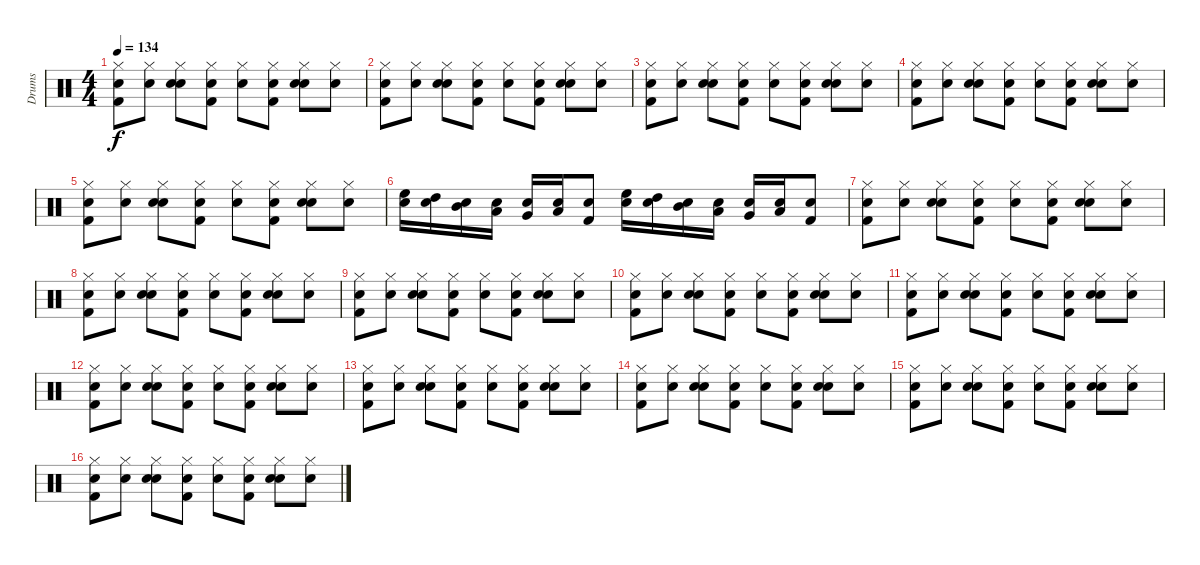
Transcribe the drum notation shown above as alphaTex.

\track ("Drums" "Drums") {instrument percussion}
\staff {score}
\articulation defaults
\ts (4 4)
\tempo 134
\clef neutral
\ks c
("Snare (hit)" "Kick (hit) 2" "Hi-Hat (closed)").8{dy f} ("Snare (hit)" "Hi-Hat (closed)").8 ("Snare (hit)" "Snare (hit) 2" "Hi-Hat (closed)").8 ("Snare (hit)" "Kick (hit) 2" "Hi-Hat (closed)").8 ("Snare (hit)" "Hi-Hat (closed)").8 ("Snare (hit)" "Kick (hit) 2" "Hi-Hat (closed)").8 ("Snare (hit)" "Snare (hit) 2" "Hi-Hat (closed)").8 ("Snare (hit)" "Hi-Hat (closed)").8 |
("Snare (hit)" "Kick (hit) 2" "Hi-Hat (closed)").8 ("Snare (hit)" "Hi-Hat (closed)").8 ("Snare (hit)" "Snare (hit) 2" "Hi-Hat (closed)").8 ("Snare (hit)" "Kick (hit) 2" "Hi-Hat (closed)").8 ("Snare (hit)" "Hi-Hat (closed)").8 ("Snare (hit)" "Kick (hit) 2" "Hi-Hat (closed)").8 ("Snare (hit)" "Snare (hit) 2" "Hi-Hat (closed)").8 ("Snare (hit)" "Hi-Hat (closed)").8 |
("Snare (hit)" "Kick (hit) 2" "Hi-Hat (closed)").8 ("Snare (hit)" "Hi-Hat (closed)").8 ("Snare (hit)" "Snare (hit) 2" "Hi-Hat (closed)").8 ("Snare (hit)" "Kick (hit) 2" "Hi-Hat (closed)").8 ("Snare (hit)" "Hi-Hat (closed)").8 ("Snare (hit)" "Kick (hit) 2" "Hi-Hat (closed)").8 ("Snare (hit)" "Snare (hit) 2" "Hi-Hat (closed)").8 ("Snare (hit)" "Hi-Hat (closed)").8 |
("Snare (hit)" "Kick (hit) 2" "Hi-Hat (closed)").8 ("Snare (hit)" "Hi-Hat (closed)").8 ("Snare (hit)" "Snare (hit) 2" "Hi-Hat (closed)").8 ("Snare (hit)" "Kick (hit) 2" "Hi-Hat (closed)").8 ("Snare (hit)" "Hi-Hat (closed)").8 ("Snare (hit)" "Kick (hit) 2" "Hi-Hat (closed)").8 ("Snare (hit)" "Snare (hit) 2" "Hi-Hat (closed)").8 ("Snare (hit)" "Hi-Hat (closed)").8 |
("Snare (hit)" "Kick (hit) 2" "Hi-Hat (closed)").8 ("Snare (hit)" "Hi-Hat (closed)").8 ("Snare (hit)" "Snare (hit) 2" "Hi-Hat (closed)").8 ("Snare (hit)" "Kick (hit) 2" "Hi-Hat (closed)").8 ("Snare (hit)" "Hi-Hat (closed)").8 ("Snare (hit)" "Kick (hit) 2" "Hi-Hat (closed)").8 ("Snare (hit)" "Snare (hit) 2" "Hi-Hat (closed)").8 ("Snare (hit)" "Hi-Hat (closed)").8 |
("Snare (hit)" "High Floor Tom (hit)").16 ("Snare (hit)" "High Tom (hit)").16 ("Snare (hit)" "Mid Tom (hit)").16 ("Snare (hit)" "Low Tom (hit)").16 ("Snare (hit)" "Very Low Tom (hit)").16 ("Snare (hit)" "Low Floor Tom (hit)").16 ("Snare (hit)" "Kick (hit) 2").8 ("Snare (hit)" "High Floor Tom (hit)").16 ("Snare (hit)" "High Tom (hit)").16 ("Snare (hit)" "Mid Tom (hit)").16 ("Snare (hit)" "Low Tom (hit)").16 ("Snare (hit)" "Very Low Tom (hit)").16 ("Snare (hit)" "Low Floor Tom (hit)").16 ("Snare (hit)" "Kick (hit) 2").8 |
("Snare (hit)" "Kick (hit) 2" "Hi-Hat (closed)").8 ("Snare (hit)" "Hi-Hat (closed)").8 ("Snare (hit)" "Snare (hit) 2" "Hi-Hat (closed)").8 ("Snare (hit)" "Kick (hit) 2" "Hi-Hat (closed)").8 ("Snare (hit)" "Hi-Hat (closed)").8 ("Snare (hit)" "Kick (hit) 2" "Hi-Hat (closed)").8 ("Snare (hit)" "Snare (hit) 2" "Hi-Hat (closed)").8 ("Snare (hit)" "Hi-Hat (closed)").8 |
("Snare (hit)" "Kick (hit) 2" "Hi-Hat (closed)").8 ("Snare (hit)" "Hi-Hat (closed)").8 ("Snare (hit)" "Snare (hit) 2" "Hi-Hat (closed)").8 ("Snare (hit)" "Kick (hit) 2" "Hi-Hat (closed)").8 ("Snare (hit)" "Hi-Hat (closed)").8 ("Snare (hit)" "Kick (hit) 2" "Hi-Hat (closed)").8 ("Snare (hit)" "Snare (hit) 2" "Hi-Hat (closed)").8 ("Snare (hit)" "Hi-Hat (closed)").8 |
("Snare (hit)" "Kick (hit) 2" "Hi-Hat (closed)").8 ("Snare (hit)" "Hi-Hat (closed)").8 ("Snare (hit)" "Snare (hit) 2" "Hi-Hat (closed)").8 ("Snare (hit)" "Kick (hit) 2" "Hi-Hat (closed)").8 ("Snare (hit)" "Hi-Hat (closed)").8 ("Snare (hit)" "Kick (hit) 2" "Hi-Hat (closed)").8 ("Snare (hit)" "Snare (hit) 2" "Hi-Hat (closed)").8 ("Snare (hit)" "Hi-Hat (closed)").8 |
("Snare (hit)" "Kick (hit) 2" "Hi-Hat (closed)").8 ("Snare (hit)" "Hi-Hat (closed)").8 ("Snare (hit)" "Snare (hit) 2" "Hi-Hat (closed)").8 ("Snare (hit)" "Kick (hit) 2" "Hi-Hat (closed)").8 ("Snare (hit)" "Hi-Hat (closed)").8 ("Snare (hit)" "Kick (hit) 2" "Hi-Hat (closed)").8 ("Snare (hit)" "Snare (hit) 2" "Hi-Hat (closed)").8 ("Snare (hit)" "Hi-Hat (closed)").8 |
("Snare (hit)" "Kick (hit) 2" "Hi-Hat (closed)").8 ("Snare (hit)" "Hi-Hat (closed)").8 ("Snare (hit)" "Snare (hit) 2" "Hi-Hat (closed)").8 ("Snare (hit)" "Kick (hit) 2" "Hi-Hat (closed)").8 ("Snare (hit)" "Hi-Hat (closed)").8 ("Snare (hit)" "Kick (hit) 2" "Hi-Hat (closed)").8 ("Snare (hit)" "Snare (hit) 2" "Hi-Hat (closed)").8 ("Snare (hit)" "Hi-Hat (closed)").8 |
("Snare (hit)" "Kick (hit) 2" "Hi-Hat (closed)").8 ("Snare (hit)" "Hi-Hat (closed)").8 ("Snare (hit)" "Snare (hit) 2" "Hi-Hat (closed)").8 ("Snare (hit)" "Kick (hit) 2" "Hi-Hat (closed)").8 ("Snare (hit)" "Hi-Hat (closed)").8 ("Snare (hit)" "Kick (hit) 2" "Hi-Hat (closed)").8 ("Snare (hit)" "Snare (hit) 2" "Hi-Hat (closed)").8 ("Snare (hit)" "Hi-Hat (closed)").8 |
("Snare (hit)" "Kick (hit) 2" "Hi-Hat (closed)").8 ("Snare (hit)" "Hi-Hat (closed)").8 ("Snare (hit)" "Snare (hit) 2" "Hi-Hat (closed)").8 ("Snare (hit)" "Kick (hit) 2" "Hi-Hat (closed)").8 ("Snare (hit)" "Hi-Hat (closed)").8 ("Snare (hit)" "Kick (hit) 2" "Hi-Hat (closed)").8 ("Snare (hit)" "Snare (hit) 2" "Hi-Hat (closed)").8 ("Snare (hit)" "Hi-Hat (closed)").8 |
("Snare (hit)" "Kick (hit) 2" "Hi-Hat (closed)").8 ("Snare (hit)" "Hi-Hat (closed)").8 ("Snare (hit)" "Snare (hit) 2" "Hi-Hat (closed)").8 ("Snare (hit)" "Kick (hit) 2" "Hi-Hat (closed)").8 ("Snare (hit)" "Hi-Hat (closed)").8 ("Snare (hit)" "Kick (hit) 2" "Hi-Hat (closed)").8 ("Snare (hit)" "Snare (hit) 2" "Hi-Hat (closed)").8 ("Snare (hit)" "Hi-Hat (closed)").8 |
("Snare (hit)" "Kick (hit) 2" "Hi-Hat (closed)").8 ("Snare (hit)" "Hi-Hat (closed)").8 ("Snare (hit)" "Snare (hit) 2" "Hi-Hat (closed)").8 ("Snare (hit)" "Kick (hit) 2" "Hi-Hat (closed)").8 ("Snare (hit)" "Hi-Hat (closed)").8 ("Snare (hit)" "Kick (hit) 2" "Hi-Hat (closed)").8 ("Snare (hit)" "Snare (hit) 2" "Hi-Hat (closed)").8 ("Snare (hit)" "Hi-Hat (closed)").8 |
("Snare (hit)" "Kick (hit) 2" "Hi-Hat (closed)").8 ("Snare (hit)" "Hi-Hat (closed)").8 ("Snare (hit)" "Snare (hit) 2" "Hi-Hat (closed)").8 ("Snare (hit)" "Kick (hit) 2" "Hi-Hat (closed)").8 ("Snare (hit)" "Hi-Hat (closed)").8 ("Snare (hit)" "Kick (hit) 2" "Hi-Hat (closed)").8 ("Snare (hit)" "Snare (hit) 2" "Hi-Hat (closed)").8 ("Snare (hit)" "Hi-Hat (closed)").8
